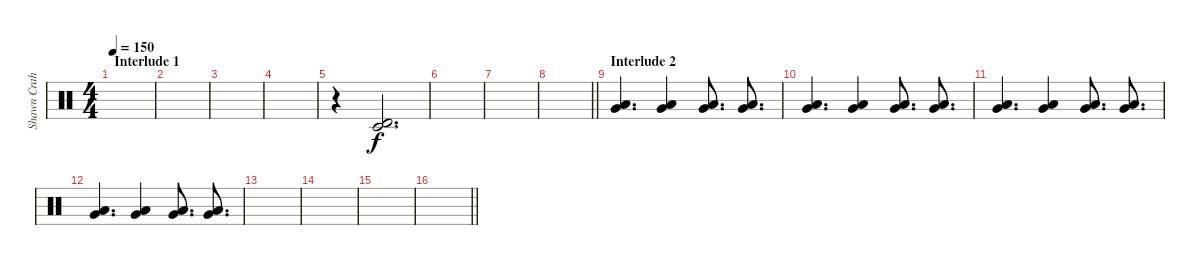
\track ("Shawn Crahan" "Shawn Crah") {instrument percussion}
\staff {score}
\articulation defaults
\ts (4 4)
\section ("" "Interlude 1")
\tempo 150
\clef neutral
\ks c
|
|
|
|
r.4 ("Timbale high (hit)" "Timbale low (hit)").2{d} |
|
|
\barLineRight lightlight
|
\section ("" "Interlude 2")
("Very Low Tom (hit)" "Low Floor Tom (hit)").4{d} ("Very Low Tom (hit)" "Low Floor Tom (hit)").4 ("Very Low Tom (hit)" "Low Floor Tom (hit)").8{d} ("Very Low Tom (hit)" "Low Floor Tom (hit)").8{d} |
("Very Low Tom (hit)" "Low Floor Tom (hit)").4{d} ("Very Low Tom (hit)" "Low Floor Tom (hit)").4 ("Very Low Tom (hit)" "Low Floor Tom (hit)").8{d} ("Very Low Tom (hit)" "Low Floor Tom (hit)").8{d} |
("Very Low Tom (hit)" "Low Floor Tom (hit)").4{d} ("Very Low Tom (hit)" "Low Floor Tom (hit)").4 ("Very Low Tom (hit)" "Low Floor Tom (hit)").8{d} ("Very Low Tom (hit)" "Low Floor Tom (hit)").8{d} |
("Very Low Tom (hit)" "Low Floor Tom (hit)").4{d} ("Very Low Tom (hit)" "Low Floor Tom (hit)").4 ("Very Low Tom (hit)" "Low Floor Tom (hit)").8{d} ("Very Low Tom (hit)" "Low Floor Tom (hit)").8{d} |
|
|
|
\barLineRight lightlight
